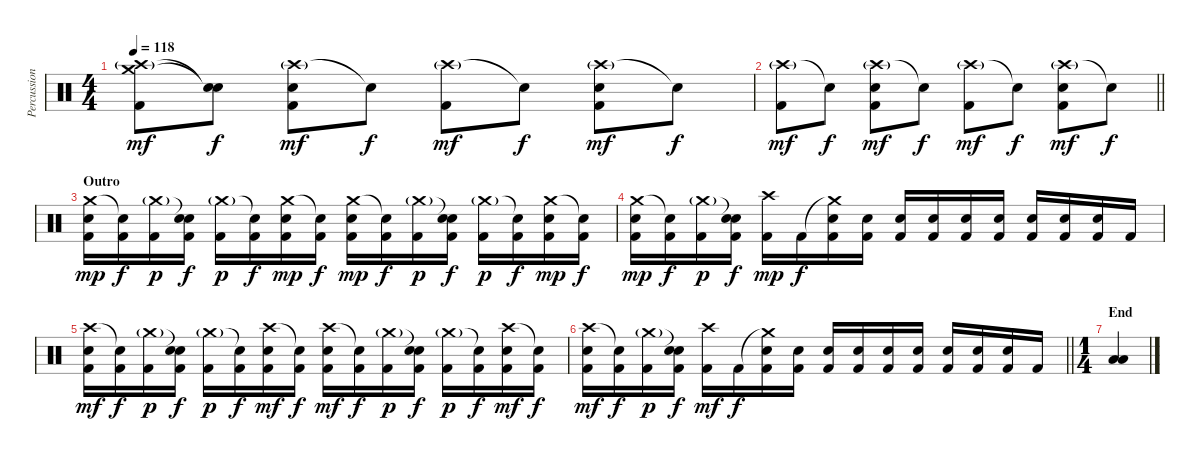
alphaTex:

\track ("Percussions" "Percussion") {instrument percussion}
\staff {score}
\articulation defaults
\ts (4 4)
\tempo 118
\clef neutral
\ks c
("Crash medium (hit)" "Crash high (hit)"{g} "Kick (hit) 2").8{dy mf} ("Snare (hit)"{t} "Snare (hit)"{t}).8{dy f} ("Crash high (hit)"{g} "Electric Snare (hit)" "Kick (hit) 2").8{dy mf} "Snare (hit)"{t}.8{dy f} ("Crash high (hit)"{g} "Kick (hit) 2").8{dy mf} "Snare (hit)"{t}.8{dy f} ("Crash high (hit)"{g} "Electric Snare (hit)" "Kick (hit) 2").8{dy mf} "Snare (hit)"{t}.8{dy f} |
\barLineRight lightlight
("Crash high (hit)"{g} "Kick (hit) 2").8{dy mf} "Snare (hit)"{t}.8{dy f} ("Crash high (hit)"{g} "Electric Snare (hit)" "Kick (hit) 2").8{dy mf} "Snare (hit)"{t}.8{dy f} ("Crash high (hit)"{g} "Kick (hit) 2").8{dy mf} "Snare (hit)"{t}.8{dy f} ("Crash high (hit)"{g} "Electric Snare (hit)" "Kick (hit) 2").8{dy mf} "Snare (hit)"{t}.8{dy f} |
\section ("" "Outro")
("Crash medium (hit)" "Electric Snare (hit)" "Kick (hit) 2").16{dy mp} ("Snare (hit)"{t} "Kick (hit) 2").16{dy f} ("Crash medium (hit)"{g} "Kick (hit) 2").16{dy p} ("Snare (hit)"{t} "Electric Snare (hit)" "Kick (hit) 2").16{dy f} ("Crash medium (hit)"{g} "Kick (hit) 2").16{dy p} ("Snare (hit)"{t} "Kick (hit) 2").16{dy f} ("Crash medium (hit)" "Electric Snare (hit)" "Kick (hit) 2").16{dy mp} ("Snare (hit)"{t} "Kick (hit) 2").16{dy f} ("Crash medium (hit)" "Electric Snare (hit)" "Kick (hit) 2").16{dy mp} ("Snare (hit)"{t} "Kick (hit) 2").16{dy f} ("Crash medium (hit)"{g} "Kick (hit) 2").16{dy p} ("Snare (hit)"{t} "Electric Snare (hit)" "Kick (hit) 2").16{dy f} ("Crash medium (hit)"{g} "Kick (hit) 2").16{dy p} ("Snare (hit)"{t} "Kick (hit) 2").16{dy f} ("Crash medium (hit)" "Electric Snare (hit)" "Kick (hit) 2").16{dy mp} ("Snare (hit)"{t} "Kick (hit) 2").16{dy f} |
("Crash medium (hit)" "Electric Snare (hit)" "Kick (hit) 2").16{dy mp} ("Snare (hit)"{t} "Kick (hit) 2").16{dy f} ("Crash medium (hit)"{g} "Kick (hit) 2").16{dy p} ("Snare (hit)"{t} "Electric Snare (hit)" "Kick (hit) 2").16{dy f} ("Crash high (hit)" "Kick (hit) 2").16{dy mp} "Kick (hit) 2".16{dy f} ("Crash medium (hit)"{t} "Electric Snare (hit)" "Kick (hit) 2").16 ("Electric Snare (hit)" "Kick (hit) 2").16 ("Electric Snare (hit)" "Kick (hit) 2").16 ("Electric Snare (hit)" "Kick (hit) 2").16 ("Electric Snare (hit)" "Kick (hit) 2").16 ("Electric Snare (hit)" "Kick (hit) 2").16 ("Electric Snare (hit)" "Kick (hit) 2").16 ("Electric Snare (hit)" "Kick (hit) 2").16 ("Electric Snare (hit)" "Kick (hit) 2").16 "Kick (hit) 2".16 |
("Crash high (hit)" "Electric Snare (hit)" "Kick (hit) 2").16{dy mf} ("Snare (hit)"{t} "Kick (hit) 2").16{dy f} ("Crash medium (hit)"{g} "Kick (hit) 2").16{dy p} ("Snare (hit)"{t} "Electric Snare (hit)" "Kick (hit) 2").16{dy f} ("Crash medium (hit)"{g} "Kick (hit) 2").16{dy p} ("Snare (hit)"{t} "Kick (hit) 2").16{dy f} ("Crash high (hit)" "Electric Snare (hit)" "Kick (hit) 2").16{dy mf} ("Snare (hit)"{t} "Kick (hit) 2").16{dy f} ("Crash high (hit)" "Electric Snare (hit)" "Kick (hit) 2").16{dy mf} ("Snare (hit)"{t} "Kick (hit) 2").16{dy f} ("Crash medium (hit)"{g} "Kick (hit) 2").16{dy p} ("Snare (hit)"{t} "Electric Snare (hit)" "Kick (hit) 2").16{dy f} ("Crash medium (hit)"{g} "Kick (hit) 2").16{dy p} ("Snare (hit)"{t} "Kick (hit) 2").16{dy f} ("Crash high (hit)" "Electric Snare (hit)" "Kick (hit) 2").16{dy mf} ("Snare (hit)"{t} "Kick (hit) 2").16{dy f} |
\barLineRight lightlight
("Crash high (hit)" "Electric Snare (hit)" "Kick (hit) 2").16{dy mf} ("Snare (hit)"{t} "Kick (hit) 2").16{dy f} ("Crash medium (hit)"{g} "Kick (hit) 2").16{dy p} ("Snare (hit)"{t} "Electric Snare (hit)" "Kick (hit) 2").16{dy f} ("Crash high (hit)" "Kick (hit) 2").16{dy mf} "Kick (hit) 2".16{dy f} ("Crash medium (hit)"{t} "Electric Snare (hit)" "Kick (hit) 2").16 ("Electric Snare (hit)" "Kick (hit) 2").16 ("Electric Snare (hit)" "Kick (hit) 2").16 ("Electric Snare (hit)" "Kick (hit) 2").16 ("Electric Snare (hit)" "Kick (hit) 2").16 ("Electric Snare (hit)" "Kick (hit) 2").16 ("Electric Snare (hit)" "Kick (hit) 2").16 ("Electric Snare (hit)" "Kick (hit) 2").16 ("Electric Snare (hit)" "Kick (hit) 2").16 "Kick (hit) 2".16 |
\ts (1 4)
\section ("" "End")
("Low Floor Tom (hit)" "Low Floor Tom (hit)").4
